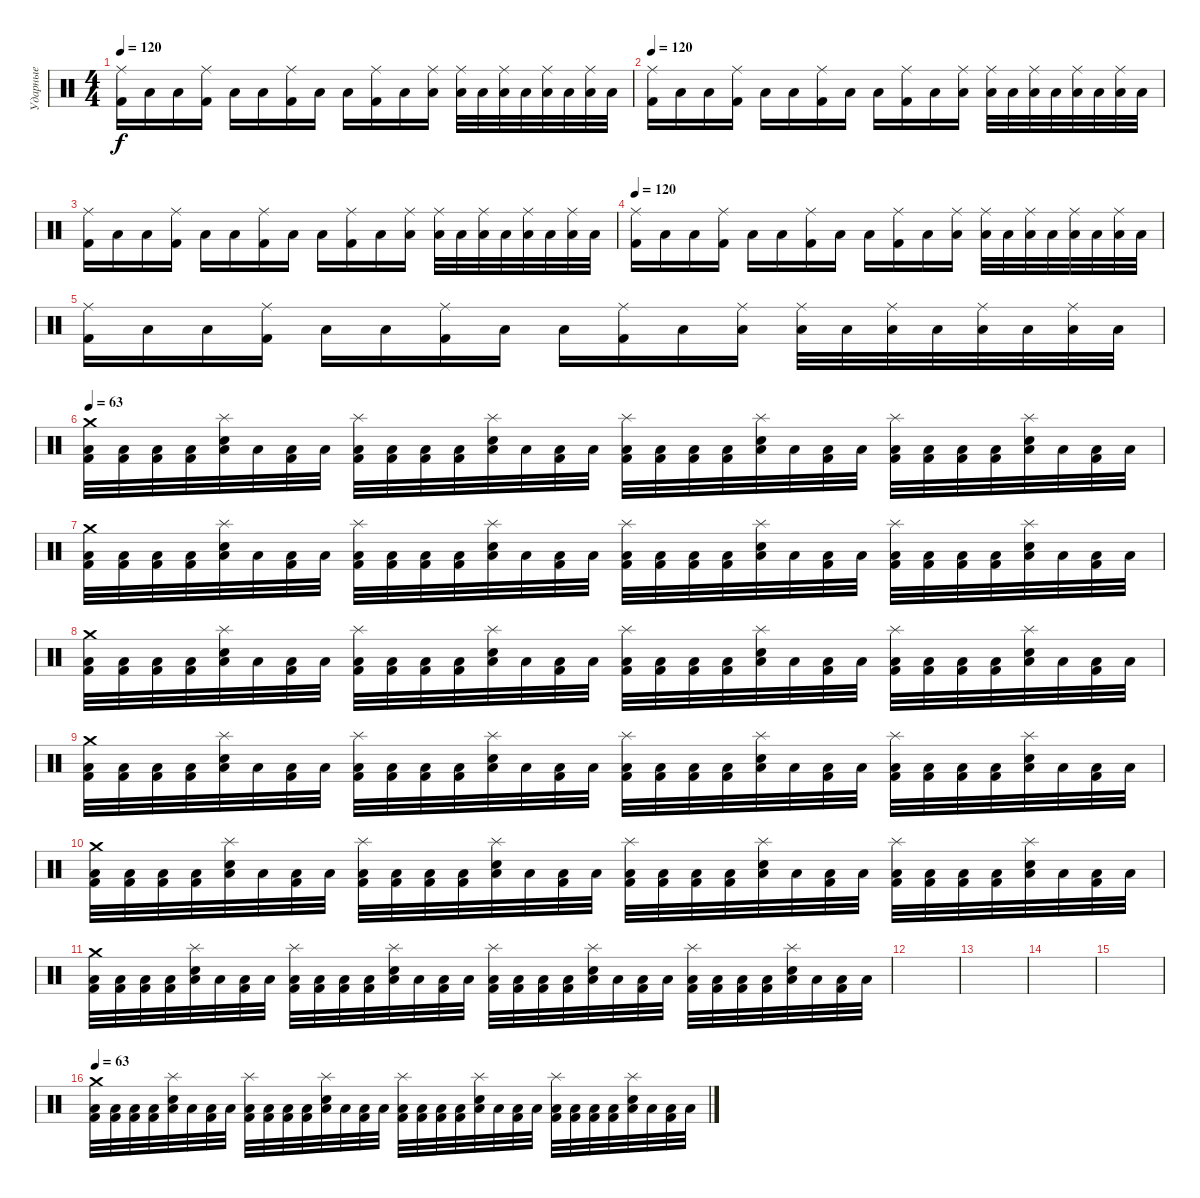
\track ("Ударные" "Ударные") {instrument percussion}
\staff {score}
\articulation defaults
\ts (4 4)
\tempo 120
\clef neutral
\ks c
("Ride (middle)" "Kick (hit) 2").16{dy f} "Low Floor Tom (hit)".16 "Low Floor Tom (hit)".16 ("Ride (middle)" "Kick (hit) 2").16 "Low Floor Tom (hit)".16 "Low Floor Tom (hit)".16 ("Ride (middle)" "Kick (hit) 2").16 "Low Floor Tom (hit)".16 "Low Floor Tom (hit)".16 ("Ride (middle)" "Kick (hit) 2").16 "Low Floor Tom (hit)".16 ("Ride (middle)" "Low Floor Tom (hit)").16 ("Ride (middle)" "Low Floor Tom (hit)").32 "Low Floor Tom (hit)".32 ("Ride (middle)" "Low Floor Tom (hit)").32 "Low Floor Tom (hit)".32 ("Ride (middle)" "Low Floor Tom (hit)").32 "Low Floor Tom (hit)".32 ("Ride (middle)" "Low Floor Tom (hit)").32 "Low Floor Tom (hit)".32 |
\tempo 120
("Ride (middle)" "Kick (hit) 2").16 "Low Floor Tom (hit)".16 "Low Floor Tom (hit)".16 ("Ride (middle)" "Kick (hit) 2").16 "Low Floor Tom (hit)".16 "Low Floor Tom (hit)".16 ("Ride (middle)" "Kick (hit) 2").16 "Low Floor Tom (hit)".16 "Low Floor Tom (hit)".16 ("Ride (middle)" "Kick (hit) 2").16 "Low Floor Tom (hit)".16 ("Ride (middle)" "Low Floor Tom (hit)").16 ("Ride (middle)" "Low Floor Tom (hit)").32 "Low Floor Tom (hit)".32 ("Ride (middle)" "Low Floor Tom (hit)").32 "Low Floor Tom (hit)".32 ("Ride (middle)" "Low Floor Tom (hit)").32 "Low Floor Tom (hit)".32 ("Ride (middle)" "Low Floor Tom (hit)").32 "Low Floor Tom (hit)".32 |
("Ride (middle)" "Kick (hit) 2").16 "Low Floor Tom (hit)".16 "Low Floor Tom (hit)".16 ("Ride (middle)" "Kick (hit) 2").16 "Low Floor Tom (hit)".16 "Low Floor Tom (hit)".16 ("Ride (middle)" "Kick (hit) 2").16 "Low Floor Tom (hit)".16 "Low Floor Tom (hit)".16 ("Ride (middle)" "Kick (hit) 2").16 "Low Floor Tom (hit)".16 ("Ride (middle)" "Low Floor Tom (hit)").16 ("Ride (middle)" "Low Floor Tom (hit)").32 "Low Floor Tom (hit)".32 ("Ride (middle)" "Low Floor Tom (hit)").32 "Low Floor Tom (hit)".32 ("Ride (middle)" "Low Floor Tom (hit)").32 "Low Floor Tom (hit)".32 ("Ride (middle)" "Low Floor Tom (hit)").32 "Low Floor Tom (hit)".32 |
\tempo 120
("Ride (middle)" "Kick (hit) 2").16 "Low Floor Tom (hit)".16 "Low Floor Tom (hit)".16 ("Ride (middle)" "Kick (hit) 2").16 "Low Floor Tom (hit)".16 "Low Floor Tom (hit)".16 ("Ride (middle)" "Kick (hit) 2").16 "Low Floor Tom (hit)".16 "Low Floor Tom (hit)".16 ("Ride (middle)" "Kick (hit) 2").16 "Low Floor Tom (hit)".16 ("Ride (middle)" "Low Floor Tom (hit)").16 ("Ride (middle)" "Low Floor Tom (hit)").32 "Low Floor Tom (hit)".32 ("Ride (middle)" "Low Floor Tom (hit)").32 "Low Floor Tom (hit)".32 ("Ride (middle)" "Low Floor Tom (hit)").32 "Low Floor Tom (hit)".32 ("Ride (middle)" "Low Floor Tom (hit)").32 "Low Floor Tom (hit)".32 |
("Ride (middle)" "Kick (hit) 2").16 "Low Floor Tom (hit)".16 "Low Floor Tom (hit)".16 ("Ride (middle)" "Kick (hit) 2").16 "Low Floor Tom (hit)".16 "Low Floor Tom (hit)".16 ("Ride (middle)" "Kick (hit) 2").16 "Low Floor Tom (hit)".16 "Low Floor Tom (hit)".16 ("Ride (middle)" "Kick (hit) 2").16 "Low Floor Tom (hit)".16 ("Ride (middle)" "Low Floor Tom (hit)").16 ("Ride (middle)" "Low Floor Tom (hit)").32 "Low Floor Tom (hit)".32 ("Ride (middle)" "Low Floor Tom (hit)").32 "Low Floor Tom (hit)".32 ("Ride (middle)" "Low Floor Tom (hit)").32 "Low Floor Tom (hit)".32 ("Ride (middle)" "Low Floor Tom (hit)").32 "Low Floor Tom (hit)".32 |
\tempo 63
("Crash medium (hit)" "Low Floor Tom (hit)" "Kick (hit) 2").32 ("Low Floor Tom (hit)" "Kick (hit) 2").32 ("Low Floor Tom (hit)" "Kick (hit) 2").32 ("Low Floor Tom (hit)" "Kick (hit) 2").32 ("Splash (hit)" "Low Floor Tom (hit)" "Electric Snare (hit)").32 "Low Floor Tom (hit)".32 ("Low Floor Tom (hit)" "Kick (hit) 2").32 "Low Floor Tom (hit)".32 ("Splash (hit)" "Low Floor Tom (hit)" "Kick (hit) 2").32 ("Low Floor Tom (hit)" "Kick (hit) 2").32 ("Low Floor Tom (hit)" "Kick (hit) 2").32 ("Low Floor Tom (hit)" "Kick (hit) 2").32 ("Splash (hit)" "Low Floor Tom (hit)" "Electric Snare (hit)").32 "Low Floor Tom (hit)".32 ("Low Floor Tom (hit)" "Kick (hit) 2").32 "Low Floor Tom (hit)".32 ("Splash (hit)" "Low Floor Tom (hit)" "Kick (hit) 2").32 ("Low Floor Tom (hit)" "Kick (hit) 2").32 ("Low Floor Tom (hit)" "Kick (hit) 2").32 ("Low Floor Tom (hit)" "Kick (hit) 2").32 ("Splash (hit)" "Low Floor Tom (hit)" "Electric Snare (hit)").32 "Low Floor Tom (hit)".32 ("Low Floor Tom (hit)" "Kick (hit) 2").32 "Low Floor Tom (hit)".32 ("Splash (hit)" "Low Floor Tom (hit)" "Kick (hit) 2").32 ("Low Floor Tom (hit)" "Kick (hit) 2").32 ("Low Floor Tom (hit)" "Kick (hit) 2").32 ("Low Floor Tom (hit)" "Kick (hit) 2").32 ("Splash (hit)" "Low Floor Tom (hit)" "Electric Snare (hit)").32 "Low Floor Tom (hit)".32 ("Low Floor Tom (hit)" "Kick (hit) 2").32 "Low Floor Tom (hit)".32 |
("Crash medium (hit)" "Low Floor Tom (hit)" "Kick (hit) 2").32 ("Low Floor Tom (hit)" "Kick (hit) 2").32 ("Low Floor Tom (hit)" "Kick (hit) 2").32 ("Low Floor Tom (hit)" "Kick (hit) 2").32 ("Splash (hit)" "Low Floor Tom (hit)" "Electric Snare (hit)").32 "Low Floor Tom (hit)".32 ("Low Floor Tom (hit)" "Kick (hit) 2").32 "Low Floor Tom (hit)".32 ("Splash (hit)" "Low Floor Tom (hit)" "Kick (hit) 2").32 ("Low Floor Tom (hit)" "Kick (hit) 2").32 ("Low Floor Tom (hit)" "Kick (hit) 2").32 ("Low Floor Tom (hit)" "Kick (hit) 2").32 ("Splash (hit)" "Low Floor Tom (hit)" "Electric Snare (hit)").32 "Low Floor Tom (hit)".32 ("Low Floor Tom (hit)" "Kick (hit) 2").32 "Low Floor Tom (hit)".32 ("Splash (hit)" "Low Floor Tom (hit)" "Kick (hit) 2").32 ("Low Floor Tom (hit)" "Kick (hit) 2").32 ("Low Floor Tom (hit)" "Kick (hit) 2").32 ("Low Floor Tom (hit)" "Kick (hit) 2").32 ("Splash (hit)" "Low Floor Tom (hit)" "Electric Snare (hit)").32 "Low Floor Tom (hit)".32 ("Low Floor Tom (hit)" "Kick (hit) 2").32 "Low Floor Tom (hit)".32 ("Splash (hit)" "Low Floor Tom (hit)" "Kick (hit) 2").32 ("Low Floor Tom (hit)" "Kick (hit) 2").32 ("Low Floor Tom (hit)" "Kick (hit) 2").32 ("Low Floor Tom (hit)" "Kick (hit) 2").32 ("Splash (hit)" "Low Floor Tom (hit)" "Electric Snare (hit)").32 "Low Floor Tom (hit)".32 ("Low Floor Tom (hit)" "Kick (hit) 2").32 "Low Floor Tom (hit)".32 |
("Crash medium (hit)" "Low Floor Tom (hit)" "Kick (hit) 2").32 ("Low Floor Tom (hit)" "Kick (hit) 2").32 ("Low Floor Tom (hit)" "Kick (hit) 2").32 ("Low Floor Tom (hit)" "Kick (hit) 2").32 ("Splash (hit)" "Low Floor Tom (hit)" "Electric Snare (hit)").32 "Low Floor Tom (hit)".32 ("Low Floor Tom (hit)" "Kick (hit) 2").32 "Low Floor Tom (hit)".32 ("Splash (hit)" "Low Floor Tom (hit)" "Kick (hit) 2").32 ("Low Floor Tom (hit)" "Kick (hit) 2").32 ("Low Floor Tom (hit)" "Kick (hit) 2").32 ("Low Floor Tom (hit)" "Kick (hit) 2").32 ("Splash (hit)" "Low Floor Tom (hit)" "Electric Snare (hit)").32 "Low Floor Tom (hit)".32 ("Low Floor Tom (hit)" "Kick (hit) 2").32 "Low Floor Tom (hit)".32 ("Splash (hit)" "Low Floor Tom (hit)" "Kick (hit) 2").32 ("Low Floor Tom (hit)" "Kick (hit) 2").32 ("Low Floor Tom (hit)" "Kick (hit) 2").32 ("Low Floor Tom (hit)" "Kick (hit) 2").32 ("Splash (hit)" "Low Floor Tom (hit)" "Electric Snare (hit)").32 "Low Floor Tom (hit)".32 ("Low Floor Tom (hit)" "Kick (hit) 2").32 "Low Floor Tom (hit)".32 ("Splash (hit)" "Low Floor Tom (hit)" "Kick (hit) 2").32 ("Low Floor Tom (hit)" "Kick (hit) 2").32 ("Low Floor Tom (hit)" "Kick (hit) 2").32 ("Low Floor Tom (hit)" "Kick (hit) 2").32 ("Splash (hit)" "Low Floor Tom (hit)" "Electric Snare (hit)").32 "Low Floor Tom (hit)".32 ("Low Floor Tom (hit)" "Kick (hit) 2").32 "Low Floor Tom (hit)".32 |
("Crash medium (hit)" "Low Floor Tom (hit)" "Kick (hit) 2").32 ("Low Floor Tom (hit)" "Kick (hit) 2").32 ("Low Floor Tom (hit)" "Kick (hit) 2").32 ("Low Floor Tom (hit)" "Kick (hit) 2").32 ("Splash (hit)" "Low Floor Tom (hit)" "Electric Snare (hit)").32 "Low Floor Tom (hit)".32 ("Low Floor Tom (hit)" "Kick (hit) 2").32 "Low Floor Tom (hit)".32 ("Splash (hit)" "Low Floor Tom (hit)" "Kick (hit) 2").32 ("Low Floor Tom (hit)" "Kick (hit) 2").32 ("Low Floor Tom (hit)" "Kick (hit) 2").32 ("Low Floor Tom (hit)" "Kick (hit) 2").32 ("Splash (hit)" "Low Floor Tom (hit)" "Electric Snare (hit)").32 "Low Floor Tom (hit)".32 ("Low Floor Tom (hit)" "Kick (hit) 2").32 "Low Floor Tom (hit)".32 ("Splash (hit)" "Low Floor Tom (hit)" "Kick (hit) 2").32 ("Low Floor Tom (hit)" "Kick (hit) 2").32 ("Low Floor Tom (hit)" "Kick (hit) 2").32 ("Low Floor Tom (hit)" "Kick (hit) 2").32 ("Splash (hit)" "Low Floor Tom (hit)" "Electric Snare (hit)").32 "Low Floor Tom (hit)".32 ("Low Floor Tom (hit)" "Kick (hit) 2").32 "Low Floor Tom (hit)".32 ("Splash (hit)" "Low Floor Tom (hit)" "Kick (hit) 2").32 ("Low Floor Tom (hit)" "Kick (hit) 2").32 ("Low Floor Tom (hit)" "Kick (hit) 2").32 ("Low Floor Tom (hit)" "Kick (hit) 2").32 ("Splash (hit)" "Low Floor Tom (hit)" "Electric Snare (hit)").32 "Low Floor Tom (hit)".32 ("Low Floor Tom (hit)" "Kick (hit) 2").32 "Low Floor Tom (hit)".32 |
("Crash medium (hit)" "Low Floor Tom (hit)" "Kick (hit) 2").32 ("Low Floor Tom (hit)" "Kick (hit) 2").32 ("Low Floor Tom (hit)" "Kick (hit) 2").32 ("Low Floor Tom (hit)" "Kick (hit) 2").32 ("Splash (hit)" "Low Floor Tom (hit)" "Electric Snare (hit)").32 "Low Floor Tom (hit)".32 ("Low Floor Tom (hit)" "Kick (hit) 2").32 "Low Floor Tom (hit)".32 ("Splash (hit)" "Low Floor Tom (hit)" "Kick (hit) 2").32 ("Low Floor Tom (hit)" "Kick (hit) 2").32 ("Low Floor Tom (hit)" "Kick (hit) 2").32 ("Low Floor Tom (hit)" "Kick (hit) 2").32 ("Splash (hit)" "Low Floor Tom (hit)" "Electric Snare (hit)").32 "Low Floor Tom (hit)".32 ("Low Floor Tom (hit)" "Kick (hit) 2").32 "Low Floor Tom (hit)".32 ("Splash (hit)" "Low Floor Tom (hit)" "Kick (hit) 2").32 ("Low Floor Tom (hit)" "Kick (hit) 2").32 ("Low Floor Tom (hit)" "Kick (hit) 2").32 ("Low Floor Tom (hit)" "Kick (hit) 2").32 ("Splash (hit)" "Low Floor Tom (hit)" "Electric Snare (hit)").32 "Low Floor Tom (hit)".32 ("Low Floor Tom (hit)" "Kick (hit) 2").32 "Low Floor Tom (hit)".32 ("Splash (hit)" "Low Floor Tom (hit)" "Kick (hit) 2").32 ("Low Floor Tom (hit)" "Kick (hit) 2").32 ("Low Floor Tom (hit)" "Kick (hit) 2").32 ("Low Floor Tom (hit)" "Kick (hit) 2").32 ("Splash (hit)" "Low Floor Tom (hit)" "Electric Snare (hit)").32 "Low Floor Tom (hit)".32 ("Low Floor Tom (hit)" "Kick (hit) 2").32 "Low Floor Tom (hit)".32 |
("Crash medium (hit)" "Low Floor Tom (hit)" "Kick (hit) 2").32 ("Low Floor Tom (hit)" "Kick (hit) 2").32 ("Low Floor Tom (hit)" "Kick (hit) 2").32 ("Low Floor Tom (hit)" "Kick (hit) 2").32 ("Splash (hit)" "Low Floor Tom (hit)" "Electric Snare (hit)").32 "Low Floor Tom (hit)".32 ("Low Floor Tom (hit)" "Kick (hit) 2").32 "Low Floor Tom (hit)".32 ("Splash (hit)" "Low Floor Tom (hit)" "Kick (hit) 2").32 ("Low Floor Tom (hit)" "Kick (hit) 2").32 ("Low Floor Tom (hit)" "Kick (hit) 2").32 ("Low Floor Tom (hit)" "Kick (hit) 2").32 ("Splash (hit)" "Low Floor Tom (hit)" "Electric Snare (hit)").32 "Low Floor Tom (hit)".32 ("Low Floor Tom (hit)" "Kick (hit) 2").32 "Low Floor Tom (hit)".32 ("Splash (hit)" "Low Floor Tom (hit)" "Kick (hit) 2").32 ("Low Floor Tom (hit)" "Kick (hit) 2").32 ("Low Floor Tom (hit)" "Kick (hit) 2").32 ("Low Floor Tom (hit)" "Kick (hit) 2").32 ("Splash (hit)" "Low Floor Tom (hit)" "Electric Snare (hit)").32 "Low Floor Tom (hit)".32 ("Low Floor Tom (hit)" "Kick (hit) 2").32 "Low Floor Tom (hit)".32 ("Splash (hit)" "Low Floor Tom (hit)" "Kick (hit) 2").32 ("Low Floor Tom (hit)" "Kick (hit) 2").32 ("Low Floor Tom (hit)" "Kick (hit) 2").32 ("Low Floor Tom (hit)" "Kick (hit) 2").32 ("Splash (hit)" "Low Floor Tom (hit)" "Electric Snare (hit)").32 "Low Floor Tom (hit)".32 ("Low Floor Tom (hit)" "Kick (hit) 2").32 "Low Floor Tom (hit)".32 |
|
|
|
|
\tempo 63
("Crash medium (hit)" "Low Floor Tom (hit)" "Kick (hit) 2").32 ("Low Floor Tom (hit)" "Kick (hit) 2").32 ("Low Floor Tom (hit)" "Kick (hit) 2").32 ("Low Floor Tom (hit)" "Kick (hit) 2").32 ("Splash (hit)" "Low Floor Tom (hit)" "Electric Snare (hit)").32 "Low Floor Tom (hit)".32 ("Low Floor Tom (hit)" "Kick (hit) 2").32 "Low Floor Tom (hit)".32 ("Splash (hit)" "Low Floor Tom (hit)" "Kick (hit) 2").32 ("Low Floor Tom (hit)" "Kick (hit) 2").32 ("Low Floor Tom (hit)" "Kick (hit) 2").32 ("Low Floor Tom (hit)" "Kick (hit) 2").32 ("Splash (hit)" "Low Floor Tom (hit)" "Electric Snare (hit)").32 "Low Floor Tom (hit)".32 ("Low Floor Tom (hit)" "Kick (hit) 2").32 "Low Floor Tom (hit)".32 ("Splash (hit)" "Low Floor Tom (hit)" "Kick (hit) 2").32 ("Low Floor Tom (hit)" "Kick (hit) 2").32 ("Low Floor Tom (hit)" "Kick (hit) 2").32 ("Low Floor Tom (hit)" "Kick (hit) 2").32 ("Splash (hit)" "Low Floor Tom (hit)" "Electric Snare (hit)").32 "Low Floor Tom (hit)".32 ("Low Floor Tom (hit)" "Kick (hit) 2").32 "Low Floor Tom (hit)".32 ("Splash (hit)" "Low Floor Tom (hit)" "Kick (hit) 2").32 ("Low Floor Tom (hit)" "Kick (hit) 2").32 ("Low Floor Tom (hit)" "Kick (hit) 2").32 ("Low Floor Tom (hit)" "Kick (hit) 2").32 ("Splash (hit)" "Low Floor Tom (hit)" "Electric Snare (hit)").32 "Low Floor Tom (hit)".32 ("Low Floor Tom (hit)" "Kick (hit) 2").32 "Low Floor Tom (hit)".32
